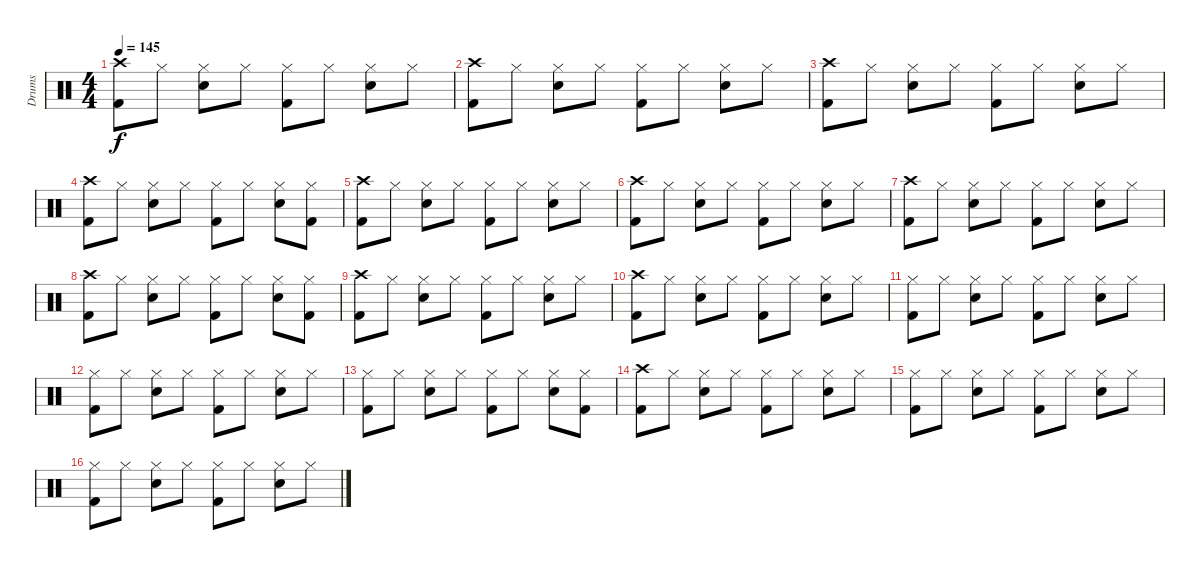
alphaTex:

\track ("Drums" "Drums") {instrument percussion}
\staff {score}
\articulation defaults
\ts (4 4)
\tempo 145
\clef neutral
\ks c
("Crash high (hit)" "Kick (hit) 2").8{dy f} "Hi-Hat (closed)".8 ("Hi-Hat (closed)" "Snare (hit) 2").8 "Hi-Hat (closed)".8 ("Hi-Hat (closed)" "Kick (hit) 2").8 "Hi-Hat (closed)".8 ("Hi-Hat (closed)" "Snare (hit) 2").8 "Hi-Hat (closed)".8 |
("Crash high (hit)" "Kick (hit) 2").8 "Hi-Hat (closed)".8 ("Hi-Hat (closed)" "Snare (hit) 2").8 "Hi-Hat (closed)".8 ("Hi-Hat (closed)" "Kick (hit) 2").8 "Hi-Hat (closed)".8 ("Hi-Hat (closed)" "Snare (hit) 2").8 "Hi-Hat (closed)".8 |
("Crash high (hit)" "Kick (hit) 2").8 "Hi-Hat (closed)".8 ("Hi-Hat (closed)" "Snare (hit) 2").8 "Hi-Hat (closed)".8 ("Hi-Hat (closed)" "Kick (hit) 2").8 "Hi-Hat (closed)".8 ("Hi-Hat (closed)" "Snare (hit) 2").8 "Hi-Hat (closed)".8 |
("Crash high (hit)" "Kick (hit) 2").8 "Hi-Hat (closed)".8 ("Hi-Hat (closed)" "Snare (hit) 2").8 "Hi-Hat (closed)".8 ("Hi-Hat (closed)" "Kick (hit) 2").8 "Hi-Hat (closed)".8 ("Hi-Hat (closed)" "Snare (hit) 2").8 ("Hi-Hat (closed)" "Kick (hit) 2").8 |
("Crash high (hit)" "Kick (hit) 2").8 "Hi-Hat (closed)".8 ("Hi-Hat (closed)" "Snare (hit) 2").8 "Hi-Hat (closed)".8 ("Hi-Hat (closed)" "Kick (hit) 2").8 "Hi-Hat (closed)".8 ("Hi-Hat (closed)" "Snare (hit) 2").8 "Hi-Hat (closed)".8 |
("Crash high (hit)" "Kick (hit) 2").8 "Hi-Hat (closed)".8 ("Hi-Hat (closed)" "Snare (hit) 2").8 "Hi-Hat (closed)".8 ("Hi-Hat (closed)" "Kick (hit) 2").8 "Hi-Hat (closed)".8 ("Hi-Hat (closed)" "Snare (hit) 2").8 "Hi-Hat (closed)".8 |
("Crash high (hit)" "Kick (hit) 2").8 "Hi-Hat (closed)".8 ("Hi-Hat (closed)" "Snare (hit) 2").8 "Hi-Hat (closed)".8 ("Hi-Hat (closed)" "Kick (hit) 2").8 "Hi-Hat (closed)".8 ("Hi-Hat (closed)" "Snare (hit) 2").8 "Hi-Hat (closed)".8 |
("Crash high (hit)" "Kick (hit) 2").8 "Hi-Hat (closed)".8 ("Hi-Hat (closed)" "Snare (hit) 2").8 "Hi-Hat (closed)".8 ("Hi-Hat (closed)" "Kick (hit) 2").8 "Hi-Hat (closed)".8 ("Hi-Hat (closed)" "Snare (hit) 2").8 ("Hi-Hat (closed)" "Kick (hit) 2").8 |
("Crash high (hit)" "Kick (hit) 2").8 "Hi-Hat (closed)".8 ("Hi-Hat (closed)" "Snare (hit) 2").8 "Hi-Hat (closed)".8 ("Hi-Hat (closed)" "Kick (hit) 2").8 "Hi-Hat (closed)".8 ("Hi-Hat (closed)" "Snare (hit) 2").8 "Hi-Hat (closed)".8 |
("Crash high (hit)" "Kick (hit) 2").8 "Hi-Hat (closed)".8 ("Hi-Hat (closed)" "Snare (hit) 2").8 "Hi-Hat (closed)".8 ("Hi-Hat (closed)" "Kick (hit) 2").8 "Hi-Hat (closed)".8 ("Hi-Hat (closed)" "Snare (hit) 2").8 "Hi-Hat (closed)".8 |
("Hi-Hat (closed)" "Kick (hit) 2").8 "Hi-Hat (closed)".8 ("Hi-Hat (closed)" "Snare (hit) 2").8 "Hi-Hat (closed)".8 ("Hi-Hat (closed)" "Kick (hit) 2").8 "Hi-Hat (closed)".8 ("Hi-Hat (closed)" "Snare (hit) 2").8 "Hi-Hat (closed)".8 |
("Hi-Hat (closed)" "Kick (hit) 2").8 "Hi-Hat (closed)".8 ("Hi-Hat (closed)" "Snare (hit) 2").8 "Hi-Hat (closed)".8 ("Hi-Hat (closed)" "Kick (hit) 2").8 "Hi-Hat (closed)".8 ("Hi-Hat (closed)" "Snare (hit) 2").8 "Hi-Hat (closed)".8 |
("Hi-Hat (closed)" "Kick (hit) 2").8 "Hi-Hat (closed)".8 ("Hi-Hat (closed)" "Snare (hit) 2").8 "Hi-Hat (closed)".8 ("Hi-Hat (closed)" "Kick (hit) 2").8 "Hi-Hat (closed)".8 ("Hi-Hat (closed)" "Snare (hit) 2").8 ("Hi-Hat (closed)" "Kick (hit) 2").8 |
("Crash high (hit)" "Kick (hit) 2").8 "Hi-Hat (closed)".8 ("Hi-Hat (closed)" "Snare (hit) 2").8 "Hi-Hat (closed)".8 ("Hi-Hat (closed)" "Kick (hit) 2").8 "Hi-Hat (closed)".8 ("Hi-Hat (closed)" "Snare (hit) 2").8 "Hi-Hat (closed)".8 |
("Hi-Hat (closed)" "Kick (hit) 2").8 "Hi-Hat (closed)".8 ("Hi-Hat (closed)" "Snare (hit) 2").8 "Hi-Hat (closed)".8 ("Hi-Hat (closed)" "Kick (hit) 2").8 "Hi-Hat (closed)".8 ("Hi-Hat (closed)" "Snare (hit) 2").8 "Hi-Hat (closed)".8 |
("Hi-Hat (closed)" "Kick (hit) 2").8 "Hi-Hat (closed)".8 ("Hi-Hat (closed)" "Snare (hit) 2").8 "Hi-Hat (closed)".8 ("Hi-Hat (closed)" "Kick (hit) 2").8 "Hi-Hat (closed)".8 ("Hi-Hat (closed)" "Snare (hit) 2").8 "Hi-Hat (closed)".8
